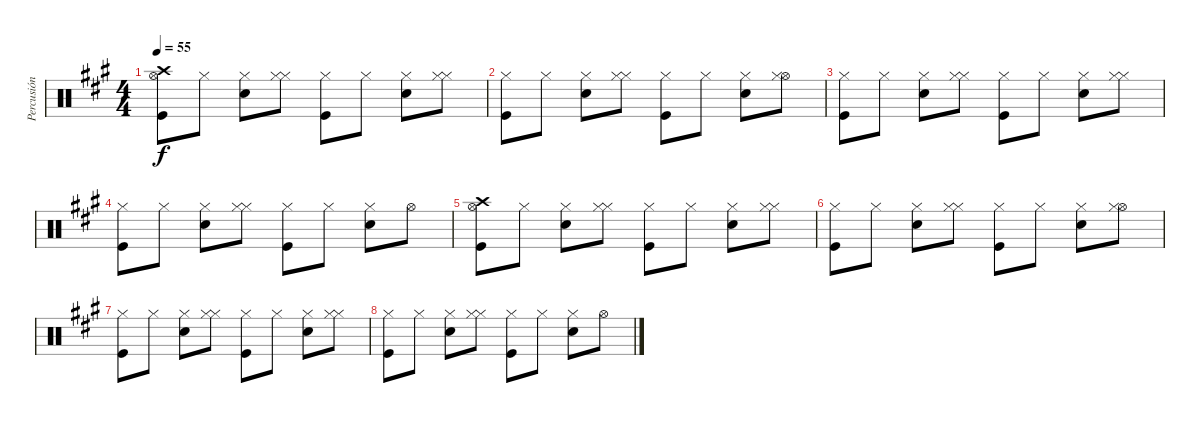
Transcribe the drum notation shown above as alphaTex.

\track ("Percusión" "Percusión") {instrument percussion}
\staff {score}
\articulation defaults
\ts (4 4)
\tempo 55
\clef neutral
\ks f#minor
("Crash high (hit)" "Hi-Hat (open)" "Kick (hit)").8{dy f} "Hi-Hat (closed)".8 ("Hi-Hat (closed)" "Snare (hit) 2").8 ("Hi-Hat (closed)" "Hi-Hat (closed)").8 ("Hi-Hat (closed)" "Kick (hit)").8 "Hi-Hat (closed)".8 ("Hi-Hat (closed)" "Snare (hit) 2").8 ("Hi-Hat (closed)" "Hi-Hat (closed)").8 |
("Hi-Hat (closed)" "Kick (hit)").8 "Hi-Hat (closed)".8 ("Hi-Hat (closed)" "Snare (hit) 2").8 ("Hi-Hat (closed)" "Hi-Hat (closed)").8 ("Hi-Hat (closed)" "Kick (hit)").8 "Hi-Hat (closed)".8 ("Hi-Hat (closed)" "Snare (hit) 2").8 ("Hi-Hat (open)" "Hi-Hat (closed)").8 |
("Hi-Hat (closed)" "Kick (hit)").8 "Hi-Hat (closed)".8 ("Hi-Hat (closed)" "Snare (hit) 2").8 ("Hi-Hat (closed)" "Hi-Hat (closed)").8 ("Hi-Hat (closed)" "Kick (hit)").8 "Hi-Hat (closed)".8 ("Hi-Hat (closed)" "Snare (hit) 2").8 ("Hi-Hat (closed)" "Hi-Hat (closed)").8 |
("Hi-Hat (closed)" "Kick (hit)").8 "Hi-Hat (closed)".8 ("Hi-Hat (closed)" "Snare (hit) 2").8 ("Hi-Hat (closed)" "Hi-Hat (closed)").8 ("Hi-Hat (closed)" "Kick (hit)").8 "Hi-Hat (closed)".8 ("Hi-Hat (closed)" "Snare (hit) 2").8 "Hi-Hat (open)".8 |
("Crash high (hit)" "Hi-Hat (open)" "Kick (hit)").8{volume 1} "Hi-Hat (closed)".8 ("Hi-Hat (closed)" "Snare (hit) 2").8 ("Hi-Hat (closed)" "Hi-Hat (closed)").8 ("Hi-Hat (closed)" "Kick (hit)").8 "Hi-Hat (closed)".8 ("Hi-Hat (closed)" "Snare (hit) 2").8 ("Hi-Hat (closed)" "Hi-Hat (closed)").8 |
("Hi-Hat (closed)" "Kick (hit)").8 "Hi-Hat (closed)".8 ("Hi-Hat (closed)" "Snare (hit) 2").8 ("Hi-Hat (closed)" "Hi-Hat (closed)").8 ("Hi-Hat (closed)" "Kick (hit)").8 "Hi-Hat (closed)".8 ("Hi-Hat (closed)" "Snare (hit) 2").8 ("Hi-Hat (open)" "Hi-Hat (closed)").8 |
("Hi-Hat (closed)" "Kick (hit)").8 "Hi-Hat (closed)".8 ("Hi-Hat (closed)" "Snare (hit) 2").8 ("Hi-Hat (closed)" "Hi-Hat (closed)").8 ("Hi-Hat (closed)" "Kick (hit)").8 "Hi-Hat (closed)".8 ("Hi-Hat (closed)" "Snare (hit) 2").8 ("Hi-Hat (closed)" "Hi-Hat (closed)").8 |
("Hi-Hat (closed)" "Kick (hit)").8 "Hi-Hat (closed)".8 ("Hi-Hat (closed)" "Snare (hit) 2").8 ("Hi-Hat (closed)" "Hi-Hat (closed)").8 ("Hi-Hat (closed)" "Kick (hit)").8 "Hi-Hat (closed)".8 ("Hi-Hat (closed)" "Snare (hit) 2").8 "Hi-Hat (open)".8
